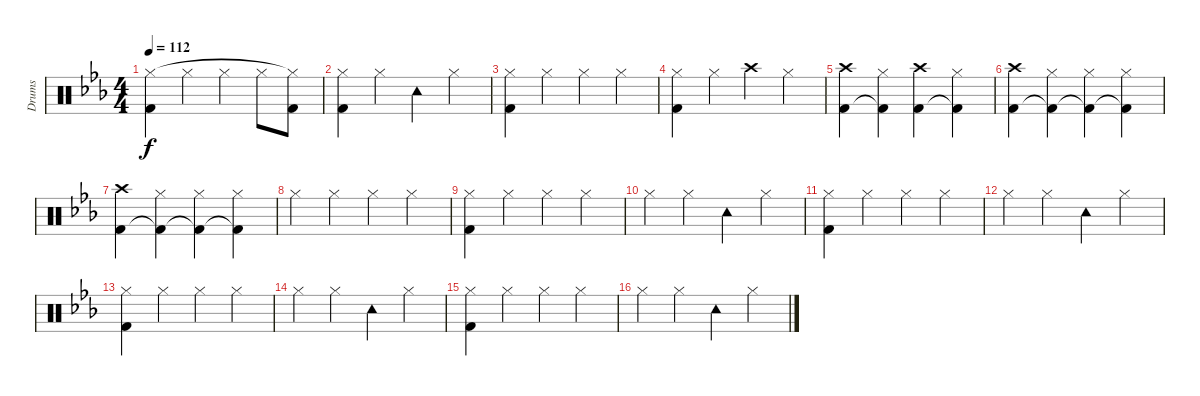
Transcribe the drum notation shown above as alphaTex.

\track ("Drums" "Drums") {instrument percussion}
\staff {score}
\articulation defaults
\ts (4 4)
\tempo 112
\clef neutral
\ks eb
("Kick (hit) 2" "Hi-Hat (closed)").4{dy f} "Hi-Hat (closed)".4 "Hi-Hat (closed)".4 "Hi-Hat (closed)".8 ("Kick (hit) 2" "Hi-Hat (closed)"{t}).8 |
("Kick (hit) 2" "Hi-Hat (closed)").4 "Hi-Hat (closed)".4 "Tambourine (hit)".4 "Hi-Hat (closed)".4 |
("Kick (hit) 2" "Hi-Hat (closed)").4 "Hi-Hat (closed)".4 "Hi-Hat (closed)".4 "Hi-Hat (closed)".4 |
("Kick (hit) 2" "Hi-Hat (closed)").4 "Hi-Hat (closed)".4 "Crash high (hit)".4 "Hi-Hat (closed)".4 |
("Kick (hit) 2" "Crash high (hit)").4 ("Kick (hit) 2"{t} "Hi-Hat (closed)").4 ("Kick (hit) 2" "Crash high (hit)").4 ("Kick (hit) 2"{t} "Hi-Hat (closed)").4 |
("Kick (hit) 2" "Crash high (hit)").4 ("Kick (hit) 2"{t} "Hi-Hat (closed)").4 ("Kick (hit) 2"{t} "Hi-Hat (closed)").4 ("Kick (hit) 2"{t} "Hi-Hat (closed)").4 |
("Kick (hit) 2" "Crash high (hit)").4 ("Kick (hit) 2"{t} "Hi-Hat (closed)").4 ("Kick (hit) 2"{t} "Hi-Hat (closed)").4 ("Kick (hit) 2"{t} "Hi-Hat (closed)").4 |
"Hi-Hat (closed)".4 "Hi-Hat (closed)".4 "Hi-Hat (closed)".4 "Hi-Hat (closed)".4 |
("Kick (hit) 2" "Hi-Hat (closed)").4 "Hi-Hat (closed)".4 "Hi-Hat (closed)".4 "Hi-Hat (closed)".4 |
"Hi-Hat (closed)".4 "Hi-Hat (closed)".4 "Tambourine (hit)".4 "Hi-Hat (closed)".4 |
("Kick (hit) 2" "Hi-Hat (closed)").4 "Hi-Hat (closed)".4 "Hi-Hat (closed)".4 "Hi-Hat (closed)".4 |
"Hi-Hat (closed)".4 "Hi-Hat (closed)".4 "Tambourine (hit)".4 "Hi-Hat (closed)".4 |
("Kick (hit) 2" "Hi-Hat (closed)").4 "Hi-Hat (closed)".4 "Hi-Hat (closed)".4 "Hi-Hat (closed)".4 |
"Hi-Hat (closed)".4 "Hi-Hat (closed)".4 "Tambourine (hit)".4 "Hi-Hat (closed)".4 |
("Kick (hit) 2" "Hi-Hat (closed)").4 "Hi-Hat (closed)".4 "Hi-Hat (closed)".4 "Hi-Hat (closed)".4 |
"Hi-Hat (closed)".4 "Hi-Hat (closed)".4 "Tambourine (hit)".4 "Hi-Hat (closed)".4
